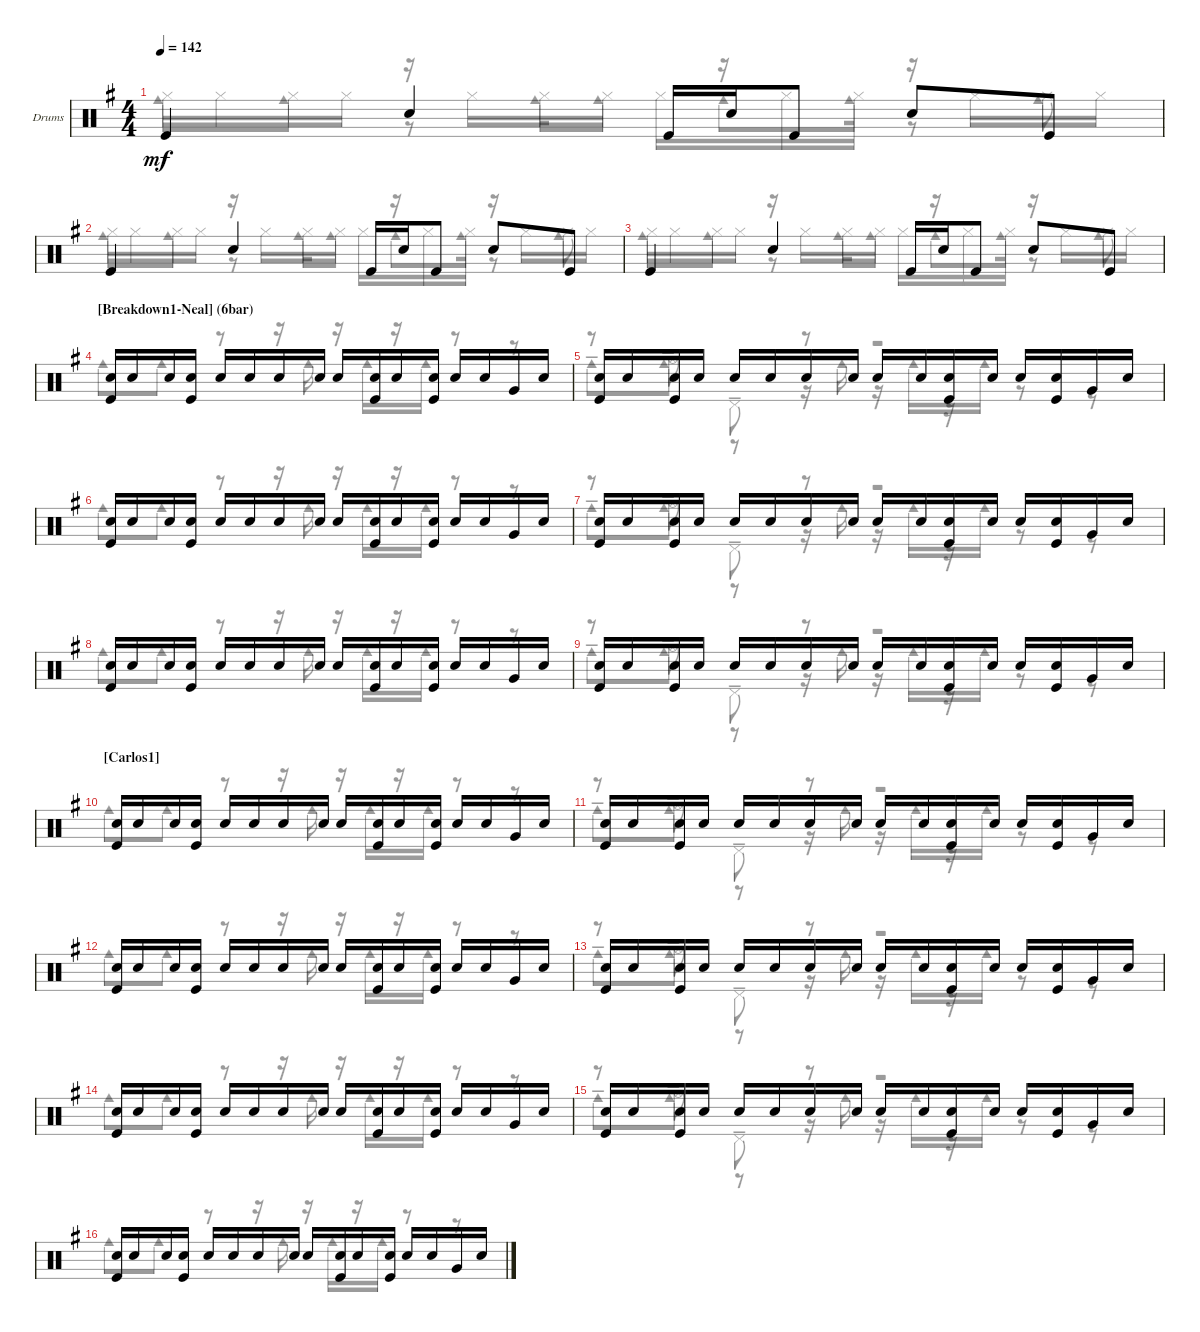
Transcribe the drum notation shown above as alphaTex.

\bracketExtendMode groupsimilarinstruments
\firstSystemTrackNameOrientation horizontal
\otherSystemsTrackNameOrientation horizontal
\track ("Drumkit" "Drums") {instrument percussion}
\staff {score}
\articulation defaults
\voice
\ts (4 4)
\tempo 142
\clef neutral
\ks eminor "Kick (hit)".4{dy mf} "Snare (hit) 2".4 "Kick (hit)".16 "Snare (hit) 2".16 "Kick (hit)".8 "Snare (hit) 2".8 "Kick (hit)".8
|
"Kick (hit)".4 "Snare (hit) 2".4 "Kick (hit)".16 "Snare (hit) 2".16 "Kick (hit)".8 "Snare (hit) 2".8 "Kick (hit)".8 |
"Kick (hit)".4 "Snare (hit) 2".4 "Kick (hit)".16 "Snare (hit) 2".16 "Kick (hit)".8 "Snare (hit) 2".8 "Kick (hit)".8 |
\section ("" "[Breakdown1-Neal] (6bar)    ")
("Kick (hit)" "Snare (hit) 2").16 "Snare (hit) 2".16 "Snare (hit) 2".16 ("Snare (hit) 2" "Kick (hit)").16 "Snare (hit) 2".16 "Snare (hit) 2".16 "Snare (hit) 2".16 "Snare (hit) 2".16 "Snare (hit) 2".16 ("Kick (hit)" "Snare (hit) 2").16 "Snare (hit) 2".16 ("Kick (hit)" "Snare (hit) 2").16 "Snare (hit) 2".16 "Snare (hit) 2".16 "Very Low Tom (hit)".16 "Snare (hit) 2".16 |
("Kick (hit)" "Snare (hit) 2").16 "Snare (hit) 2".16 ("Kick (hit)" "Snare (hit) 2").16 "Snare (hit) 2".16 "Snare (hit) 2".16 "Snare (hit) 2".16 "Snare (hit) 2".16 "Snare (hit) 2".16 "Snare (hit) 2".16 "Snare (hit) 2".16 ("Snare (hit) 2" "Kick (hit)").16 "Snare (hit) 2".16 "Snare (hit) 2".16 ("Snare (hit) 2" "Kick (hit)").16 "Very Low Tom (hit)".16 "Snare (hit) 2".16 |
("Kick (hit)" "Snare (hit) 2").16 "Snare (hit) 2".16 "Snare (hit) 2".16 ("Snare (hit) 2" "Kick (hit)").16 "Snare (hit) 2".16 "Snare (hit) 2".16 "Snare (hit) 2".16 "Snare (hit) 2".16 "Snare (hit) 2".16 ("Kick (hit)" "Snare (hit) 2").16 "Snare (hit) 2".16 ("Kick (hit)" "Snare (hit) 2").16 "Snare (hit) 2".16 "Snare (hit) 2".16 "Very Low Tom (hit)".16 "Snare (hit) 2".16 |
("Kick (hit)" "Snare (hit) 2").16 "Snare (hit) 2".16 ("Kick (hit)" "Snare (hit) 2").16 "Snare (hit) 2".16 "Snare (hit) 2".16 "Snare (hit) 2".16 "Snare (hit) 2".16 "Snare (hit) 2".16 "Snare (hit) 2".16 "Snare (hit) 2".16 ("Snare (hit) 2" "Kick (hit)").16 "Snare (hit) 2".16 "Snare (hit) 2".16 ("Snare (hit) 2" "Kick (hit)").16 "Very Low Tom (hit)".16 "Snare (hit) 2".16 |
("Kick (hit)" "Snare (hit) 2").16 "Snare (hit) 2".16 "Snare (hit) 2".16 ("Snare (hit) 2" "Kick (hit)").16 "Snare (hit) 2".16 "Snare (hit) 2".16 "Snare (hit) 2".16 "Snare (hit) 2".16 "Snare (hit) 2".16 ("Kick (hit)" "Snare (hit) 2").16 "Snare (hit) 2".16 ("Kick (hit)" "Snare (hit) 2").16 "Snare (hit) 2".16 "Snare (hit) 2".16 "Very Low Tom (hit)".16 "Snare (hit) 2".16 |
("Kick (hit)" "Snare (hit) 2").16 "Snare (hit) 2".16 ("Kick (hit)" "Snare (hit) 2").16 "Snare (hit) 2".16 "Snare (hit) 2".16 "Snare (hit) 2".16 "Snare (hit) 2".16 "Snare (hit) 2".16 "Snare (hit) 2".16 "Snare (hit) 2".16 ("Snare (hit) 2" "Kick (hit)").16 "Snare (hit) 2".16 "Snare (hit) 2".16 ("Snare (hit) 2" "Kick (hit)").16 "Very Low Tom (hit)".16 "Snare (hit) 2".16 |
\section ("" "[Carlos1] ")
("Kick (hit)" "Snare (hit) 2").16 "Snare (hit) 2".16 "Snare (hit) 2".16 ("Snare (hit) 2" "Kick (hit)").16 "Snare (hit) 2".16 "Snare (hit) 2".16 "Snare (hit) 2".16 "Snare (hit) 2".16 "Snare (hit) 2".16 ("Kick (hit)" "Snare (hit) 2").16 "Snare (hit) 2".16 ("Kick (hit)" "Snare (hit) 2").16 "Snare (hit) 2".16 "Snare (hit) 2".16 "Very Low Tom (hit)".16 "Snare (hit) 2".16 |
("Kick (hit)" "Snare (hit) 2").16 "Snare (hit) 2".16 ("Kick (hit)" "Snare (hit) 2").16 "Snare (hit) 2".16 "Snare (hit) 2".16 "Snare (hit) 2".16 "Snare (hit) 2".16 "Snare (hit) 2".16 "Snare (hit) 2".16 "Snare (hit) 2".16 ("Snare (hit) 2" "Kick (hit)").16 "Snare (hit) 2".16 "Snare (hit) 2".16 ("Snare (hit) 2" "Kick (hit)").16 "Very Low Tom (hit)".16 "Snare (hit) 2".16 |
("Kick (hit)" "Snare (hit) 2").16 "Snare (hit) 2".16 "Snare (hit) 2".16 ("Snare (hit) 2" "Kick (hit)").16 "Snare (hit) 2".16 "Snare (hit) 2".16 "Snare (hit) 2".16 "Snare (hit) 2".16 "Snare (hit) 2".16 ("Kick (hit)" "Snare (hit) 2").16 "Snare (hit) 2".16 ("Kick (hit)" "Snare (hit) 2").16 "Snare (hit) 2".16 "Snare (hit) 2".16 "Very Low Tom (hit)".16 "Snare (hit) 2".16 |
("Kick (hit)" "Snare (hit) 2").16 "Snare (hit) 2".16 ("Kick (hit)" "Snare (hit) 2").16 "Snare (hit) 2".16 "Snare (hit) 2".16 "Snare (hit) 2".16 "Snare (hit) 2".16 "Snare (hit) 2".16 "Snare (hit) 2".16 "Snare (hit) 2".16 ("Snare (hit) 2" "Kick (hit)").16 "Snare (hit) 2".16 "Snare (hit) 2".16 ("Snare (hit) 2" "Kick (hit)").16 "Very Low Tom (hit)".16 "Snare (hit) 2".16 |
("Kick (hit)" "Snare (hit) 2").16 "Snare (hit) 2".16 "Snare (hit) 2".16 ("Snare (hit) 2" "Kick (hit)").16 "Snare (hit) 2".16 "Snare (hit) 2".16 "Snare (hit) 2".16 "Snare (hit) 2".16 "Snare (hit) 2".16 ("Kick (hit)" "Snare (hit) 2").16 "Snare (hit) 2".16 ("Kick (hit)" "Snare (hit) 2").16 "Snare (hit) 2".16 "Snare (hit) 2".16 "Very Low Tom (hit)".16 "Snare (hit) 2".16 |
("Kick (hit)" "Snare (hit) 2").16 "Snare (hit) 2".16 ("Kick (hit)" "Snare (hit) 2").16 "Snare (hit) 2".16 "Snare (hit) 2".16 "Snare (hit) 2".16 "Snare (hit) 2".16 "Snare (hit) 2".16 "Snare (hit) 2".16 "Snare (hit) 2".16 ("Snare (hit) 2" "Kick (hit)").16 "Snare (hit) 2".16 "Snare (hit) 2".16 ("Snare (hit) 2" "Kick (hit)").16 "Very Low Tom (hit)".16 "Snare (hit) 2".16 |
("Kick (hit)" "Snare (hit) 2").16 "Snare (hit) 2".16 "Snare (hit) 2".16 ("Snare (hit) 2" "Kick (hit)").16 "Snare (hit) 2".16 "Snare (hit) 2".16 "Snare (hit) 2".16 "Snare (hit) 2".16 "Snare (hit) 2".16 ("Kick (hit)" "Snare (hit) 2").16 "Snare (hit) 2".16 ("Kick (hit)" "Snare (hit) 2").16 "Snare (hit) 2".16 "Snare (hit) 2".16 "Very Low Tom (hit)".16 "Snare (hit) 2".16
\voice
\clef neutral
\ottava regular
\simile none
\ks eminor "Hi-Hat (closed)".16{dy mf} "Hi-Hat (closed)".16 "Hi-Hat (closed)".16 "Hi-Hat (closed)".16
r.16 "Hi-Hat (closed)".16 "Hi-Hat (closed)".16 "Hi-Hat (closed)".16 "Hi-Hat (closed)".16 r.16 "Hi-Hat (closed)".16 "Hi-Hat (closed)".16 r.16 "Hi-Hat (closed)".16 "Hi-Hat (closed)".16 "Hi-Hat (closed)".16 |
"Hi-Hat (closed)".16 "Hi-Hat (closed)".16 "Hi-Hat (closed)".16 "Hi-Hat (closed)".16 r.16 "Hi-Hat (closed)".16 "Hi-Hat (closed)".16 "Hi-Hat (closed)".16 "Hi-Hat (closed)".16 r.16 "Hi-Hat (closed)".16 "Hi-Hat (closed)".16 r.16 "Hi-Hat (closed)".16 "Hi-Hat (closed)".16 "Hi-Hat (closed)".16 |
"Hi-Hat (closed)".16 "Hi-Hat (closed)".16 "Hi-Hat (closed)".16 "Hi-Hat (closed)".16 r.16 "Hi-Hat (closed)".16 "Hi-Hat (closed)".16 "Hi-Hat (closed)".16 "Hi-Hat (closed)".16 r.16 "Hi-Hat (closed)".16 "Hi-Hat (closed)".16 r.16 "Hi-Hat (closed)".16 "Hi-Hat (closed)".16 "Hi-Hat (closed)".16 |
"Cowbell medium (hit)".8 "Cowbell medium (hit)".8 r.8 r.16 "Cowbell medium (hit)".16 r.16 "Cowbell medium (hit)".16 r.16 "Cowbell medium (hit)".16 r.8 r.8 |
r.8 "Hi-Hat (open)"{ten}.8 "Pedal Hi-Hat (hit)"{ten}.8 r.8 r.2 |
"Cowbell medium (hit)".8 "Cowbell medium (hit)".8 r.8 r.16 "Cowbell medium (hit)".16 r.16 "Cowbell medium (hit)".16 r.16 "Cowbell medium (hit)".16 r.8 r.8 |
r.8 "Hi-Hat (open)"{ten}.8 "Pedal Hi-Hat (hit)"{ten}.8 r.8 r.2 |
"Cowbell medium (hit)".8 "Cowbell medium (hit)".8 r.8 r.16 "Cowbell medium (hit)".16 r.16 "Cowbell medium (hit)".16 r.16 "Cowbell medium (hit)".16 r.8 r.8 |
r.8 "Hi-Hat (open)"{ten}.8 "Pedal Hi-Hat (hit)"{ten}.8 r.8 r.2 |
"Cowbell medium (hit)".8 "Cowbell medium (hit)".8 r.8 r.16 "Cowbell medium (hit)".16 r.16 "Cowbell medium (hit)".16 r.16 "Cowbell medium (hit)".16 r.8 r.8 |
r.8 "Hi-Hat (open)"{ten}.8 "Pedal Hi-Hat (hit)"{ten}.8 r.8 r.2 |
"Cowbell medium (hit)".8 "Cowbell medium (hit)".8 r.8 r.16 "Cowbell medium (hit)".16 r.16 "Cowbell medium (hit)".16 r.16 "Cowbell medium (hit)".16 r.8 r.8 |
r.8 "Hi-Hat (open)"{ten}.8 "Pedal Hi-Hat (hit)"{ten}.8 r.8 r.2 |
"Cowbell medium (hit)".8 "Cowbell medium (hit)".8 r.8 r.16 "Cowbell medium (hit)".16 r.16 "Cowbell medium (hit)".16 r.16 "Cowbell medium (hit)".16 r.8 r.8 |
r.8 "Hi-Hat (open)"{ten}.8 "Pedal Hi-Hat (hit)"{ten}.8 r.8 r.2 |
"Cowbell medium (hit)".8 "Cowbell medium (hit)".8 r.8 r.16 "Cowbell medium (hit)".16 r.16 "Cowbell medium (hit)".16 r.16 "Cowbell medium (hit)".16 r.8 r.8
\voice
\clef neutral
\ottava regular
\simile none
\ks eminor "Cowbell medium (hit)".8{dy mf} "Cowbell medium (hit)".8
r.8 "Cowbell medium (hit)".16 "Cowbell medium (hit)".8 "Cowbell medium (hit)".8 "Cowbell medium (hit)".16 r.8 "Cowbell medium (hit)".8 |
"Cowbell medium (hit)".8 "Cowbell medium (hit)".8 r.8 "Cowbell medium (hit)".16 "Cowbell medium (hit)".8 "Cowbell medium (hit)".8 "Cowbell medium (hit)".16 r.8 "Cowbell medium (hit)".8 |
"Cowbell medium (hit)".8 "Cowbell medium (hit)".8 r.8 "Cowbell medium (hit)".16 "Cowbell medium (hit)".8 "Cowbell medium (hit)".8 "Cowbell medium (hit)".16 r.8 "Cowbell medium (hit)".8 |
|
"Cowbell medium (hit)"{ten}.8 "Cowbell medium (hit)"{ten}.8 r.8 r.16 "Cowbell medium (hit)"{ten}.16 r.16 "Cowbell medium (hit)"{ten}.16 r.16 "Cowbell medium (hit)"{ten}.16 r.8 r.8 |
|
"Cowbell medium (hit)"{ten}.8 "Cowbell medium (hit)"{ten}.8 r.8 r.16 "Cowbell medium (hit)"{ten}.16 r.16 "Cowbell medium (hit)"{ten}.16 r.16 "Cowbell medium (hit)"{ten}.16 r.8 r.8 |
|
"Cowbell medium (hit)"{ten}.8 "Cowbell medium (hit)"{ten}.8 r.8 r.16 "Cowbell medium (hit)"{ten}.16 r.16 "Cowbell medium (hit)"{ten}.16 r.16 "Cowbell medium (hit)"{ten}.16 r.8 r.8 |
|
"Cowbell medium (hit)"{ten}.8 "Cowbell medium (hit)"{ten}.8 r.8 r.16 "Cowbell medium (hit)"{ten}.16 r.16 "Cowbell medium (hit)"{ten}.16 r.16 "Cowbell medium (hit)"{ten}.16 r.8 r.8 |
|
"Cowbell medium (hit)"{ten}.8 "Cowbell medium (hit)"{ten}.8 r.8 r.16 "Cowbell medium (hit)"{ten}.16 r.16 "Cowbell medium (hit)"{ten}.16 r.16 "Cowbell medium (hit)"{ten}.16 r.8 r.8 |
|
"Cowbell medium (hit)"{ten}.8 "Cowbell medium (hit)"{ten}.8 r.8 r.16 "Cowbell medium (hit)"{ten}.16 r.16 "Cowbell medium (hit)"{ten}.16 r.16 "Cowbell medium (hit)"{ten}.16 r.8 r.8 |
